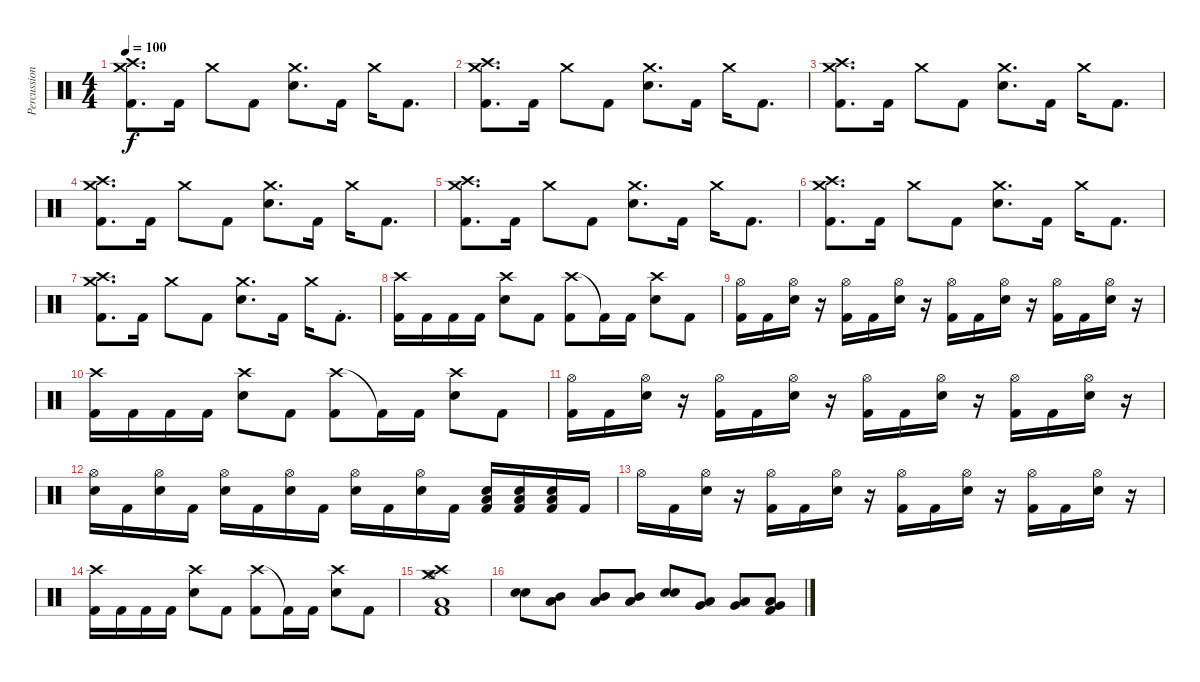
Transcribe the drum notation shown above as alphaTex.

\track ("Percussion" "Percussion") {instrument percussion}
\staff {score}
\articulation defaults
\ts (4 4)
\tempo 100
\clef neutral
\ks c
("Crash high (hit)" "Kick (hit) 2" "Crash medium (hit)").8{d dy f} "Kick (hit) 2".16 "Crash medium (hit)".8 "Kick (hit) 2".8 ("Snare (hit) 2" "Crash medium (hit)").8{d} "Kick (hit) 2".16 "Crash medium (hit)".16 "Kick (hit) 2".8{d} |
("Crash high (hit)" "Kick (hit) 2" "Crash medium (hit)").8{d} "Kick (hit) 2".16 "Crash medium (hit)".8 "Kick (hit) 2".8 ("Snare (hit) 2" "Crash medium (hit)").8{d} "Kick (hit) 2".16 "Crash medium (hit)".16 "Kick (hit) 2".8{d} |
("Crash high (hit)" "Kick (hit) 2" "Crash medium (hit)").8{d} "Kick (hit) 2".16 "Crash medium (hit)".8 "Kick (hit) 2".8 ("Snare (hit) 2" "Crash medium (hit)").8{d} "Kick (hit) 2".16 "Crash medium (hit)".16 "Kick (hit) 2".8{d} |
("Crash high (hit)" "Kick (hit) 2" "Crash medium (hit)").8{d} "Kick (hit) 2".16 "Crash medium (hit)".8 "Kick (hit) 2".8 ("Snare (hit) 2" "Crash medium (hit)").8{d} "Kick (hit) 2".16 "Crash medium (hit)".16 "Kick (hit) 2".8{d} |
("Crash high (hit)" "Kick (hit) 2" "Crash medium (hit)").8{d} "Kick (hit) 2".16 "Crash medium (hit)".8 "Kick (hit) 2".8 ("Snare (hit) 2" "Crash medium (hit)").8{d} "Kick (hit) 2".16 "Crash medium (hit)".16 "Kick (hit) 2".8{d} |
("Crash high (hit)" "Kick (hit) 2" "Crash medium (hit)").8{d} "Kick (hit) 2".16 "Crash medium (hit)".8 "Kick (hit) 2".8 ("Snare (hit) 2" "Crash medium (hit)").8{d} "Kick (hit) 2".16 "Crash medium (hit)".16 "Kick (hit) 2".8{d} |
("Crash high (hit)" "Kick (hit) 2" "Crash medium (hit)").8{d} "Kick (hit) 2".16 "Crash medium (hit)".8 "Kick (hit) 2".8 ("Snare (hit) 2" "Crash medium (hit)").8{d} "Kick (hit) 2".16 "Crash medium (hit)".16 "Kick (hit) 2"{st}.8{d} |
("Crash high (hit)" "Kick (hit) 2").16 "Kick (hit) 2".16 "Kick (hit) 2".16 "Kick (hit) 2".16 ("Crash high (hit)" "Snare (hit) 2").8 "Kick (hit) 2".8 ("Crash high (hit)" "Kick (hit) 2").8 "Kick (hit) 2"{t}.16 "Kick (hit) 2".16 ("Crash high (hit)" "Snare (hit) 2").8 "Kick (hit) 2".8 |
("Hi-Hat (open)" "Kick (hit) 2").16 "Kick (hit) 2".16 ("Hi-Hat (open)" "Snare (hit) 2").16 r.16 ("Hi-Hat (open)" "Kick (hit) 2").16 "Kick (hit) 2".16 ("Hi-Hat (open)" "Snare (hit) 2").16 r.16 ("Hi-Hat (open)" "Kick (hit) 2").16 "Kick (hit) 2".16 ("Hi-Hat (open)" "Snare (hit) 2").16 r.16 ("Hi-Hat (open)" "Kick (hit) 2").16 "Kick (hit) 2".16 ("Hi-Hat (open)" "Snare (hit) 2").16 r.16 |
("Crash high (hit)" "Kick (hit) 2").16 "Kick (hit) 2".16 "Kick (hit) 2".16 "Kick (hit) 2".16 ("Crash high (hit)" "Snare (hit) 2").8 "Kick (hit) 2".8 ("Crash high (hit)" "Kick (hit) 2").8 "Kick (hit) 2"{t}.16 "Kick (hit) 2".16 ("Crash high (hit)" "Snare (hit) 2").8 "Kick (hit) 2".8 |
("Hi-Hat (open)" "Kick (hit) 2").16 "Kick (hit) 2".16 ("Hi-Hat (open)" "Snare (hit) 2").16 r.16 ("Hi-Hat (open)" "Kick (hit) 2").16 "Kick (hit) 2".16 ("Hi-Hat (open)" "Snare (hit) 2").16 r.16 ("Hi-Hat (open)" "Kick (hit) 2").16 "Kick (hit) 2".16 ("Hi-Hat (open)" "Snare (hit) 2").16 r.16 ("Hi-Hat (open)" "Kick (hit) 2").16 "Kick (hit) 2".16 ("Hi-Hat (open)" "Snare (hit) 2").16 r.16 |
("Hi-Hat (open)" "Snare (hit) 2").16 "Kick (hit) 2".16 ("Hi-Hat (open)" "Snare (hit) 2").16 "Kick (hit) 2".16 ("Hi-Hat (open)" "Snare (hit) 2").16 "Kick (hit) 2".16 ("Hi-Hat (open)" "Snare (hit) 2").16 "Kick (hit) 2".16 ("Hi-Hat (open)" "Snare (hit) 2").16 "Kick (hit) 2".16 ("Hi-Hat (open)" "Snare (hit) 2").16 "Kick (hit) 2".16 ("Low Floor Tom (hit)" "Snare (hit) 2" "Kick (hit) 2").16 ("Low Floor Tom (hit)" "Snare (hit) 2" "Kick (hit) 2").16 ("Low Floor Tom (hit)" "Snare (hit) 2" "Kick (hit) 2").16 "Kick (hit) 2".16 |
"Hi-Hat (open)".16 "Kick (hit) 2".16 ("Hi-Hat (open)" "Snare (hit) 2").16 r.16 ("Hi-Hat (open)" "Kick (hit) 2").16 "Kick (hit) 2".16 ("Hi-Hat (open)" "Snare (hit) 2").16 r.16 ("Hi-Hat (open)" "Kick (hit) 2").16 "Kick (hit) 2".16 ("Hi-Hat (open)" "Snare (hit) 2").16 r.16 ("Hi-Hat (open)" "Kick (hit) 2").16 "Kick (hit) 2".16 ("Hi-Hat (open)" "Snare (hit) 2").16 r.16 |
("Crash high (hit)" "Kick (hit) 2").16 "Kick (hit) 2".16 "Kick (hit) 2".16 "Kick (hit) 2".16 ("Crash high (hit)" "Snare (hit) 2").8 "Kick (hit) 2".8 ("Crash high (hit)" "Kick (hit) 2").8 "Kick (hit) 2"{t}.16 "Kick (hit) 2".16 ("Crash high (hit)" "Snare (hit) 2").8 "Kick (hit) 2".8 |
("Kick (hit) 2" "Low Floor Tom (hit)" "Hi-Hat (open)" "Crash high (hit)" "Crash medium (hit)").1 |
("Snare (hit) 2" "Snare (hit) 2").8 ("Mid Tom (hit)" "Low Tom (hit)").8 ("Mid Tom (hit)" "Low Tom (hit)").8 ("Mid Tom (hit)" "Low Tom (hit)").8 ("Snare (hit) 2" "Snare (hit) 2").8 ("Low Floor Tom (hit)" "Very Low Tom (hit)").8 ("Very Low Tom (hit)" "Low Floor Tom (hit)").8 ("Kick (hit) 2" "Very Low Tom (hit)" "Low Floor Tom (hit)").8
